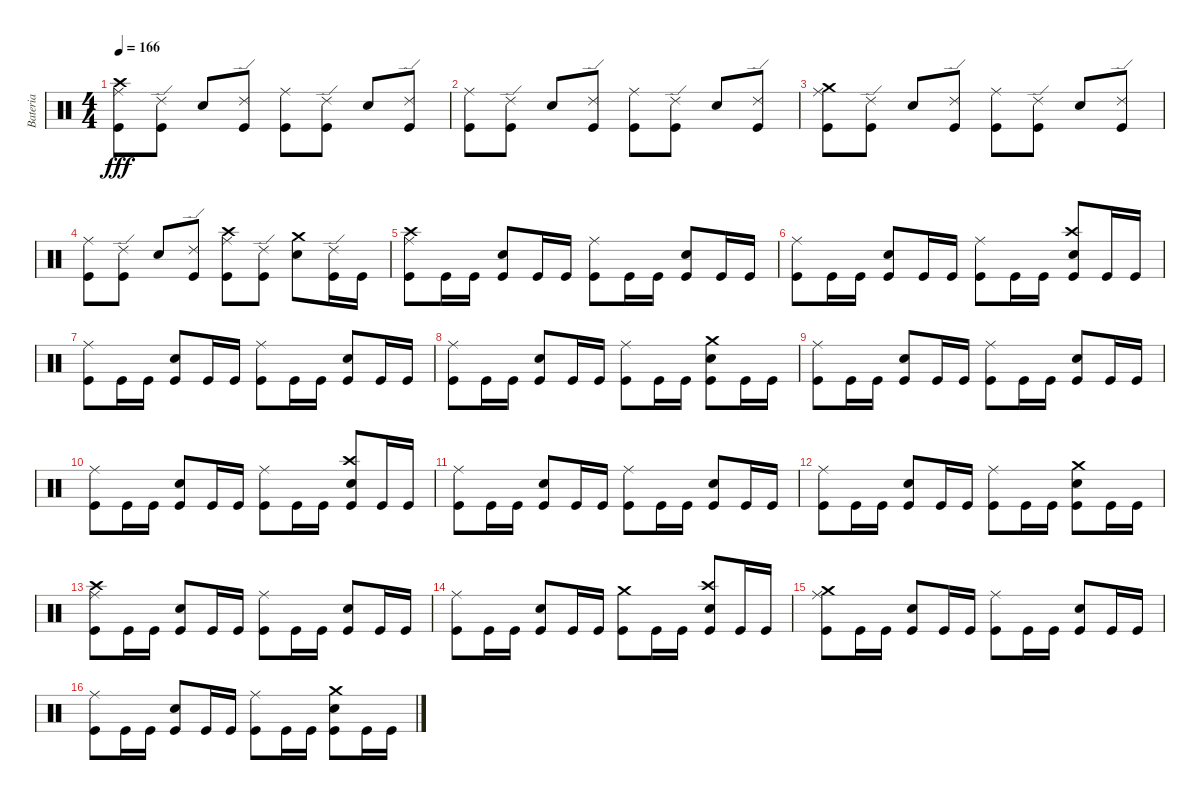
\track ("Bateria" "Bateria") {instrument percussion}
\staff {score}
\articulation defaults
\ts (4 4)
\tempo 166
\clef neutral
\ks c
("Kick (hit)" "Ride (middle)" "Crash high (hit)").8{dy fff} ("Kick (hit)" "Ride (edge) 2").8 "Snare (hit) 2".8 ("Kick (hit)" "Ride (edge) 2").8 ("Kick (hit)" "Ride (middle)").8 ("Kick (hit)" "Ride (edge) 2").8 "Snare (hit) 2".8 ("Kick (hit)" "Ride (edge) 2").8 |
("Kick (hit)" "Ride (middle)").8 ("Kick (hit)" "Ride (edge) 2").8 "Snare (hit) 2".8 ("Kick (hit)" "Ride (edge) 2").8 ("Kick (hit)" "Ride (middle)").8 ("Kick (hit)" "Ride (edge) 2").8 "Snare (hit) 2".8 ("Kick (hit)" "Ride (edge) 2").8 |
("Kick (hit)" "Ride (middle)" "Crash medium (hit)").8 ("Kick (hit)" "Ride (edge) 2").8 "Snare (hit) 2".8 ("Kick (hit)" "Ride (edge) 2").8 ("Kick (hit)" "Ride (middle)").8 ("Kick (hit)" "Ride (edge) 2").8 "Snare (hit) 2".8 ("Kick (hit)" "Ride (edge) 2").8 |
("Kick (hit)" "Ride (middle)").8 ("Kick (hit)" "Ride (edge) 2").8 "Snare (hit) 2".8 ("Kick (hit)" "Ride (edge) 2").8 ("Kick (hit)" "Ride (middle)" "Crash high (hit)").8 ("Kick (hit)" "Ride (edge) 2").8 ("Crash medium (hit)" "Snare (hit) 2").8 ("Ride (edge) 2" "Kick (hit)").16 "Kick (hit)".16 |
("Ride (middle)" "Kick (hit)" "Crash high (hit)").8 "Kick (hit)".16 "Kick (hit)".16 ("Snare (hit) 2" "Kick (hit)").8 "Kick (hit)".16 "Kick (hit)".16 ("Ride (middle)" "Kick (hit)").8 "Kick (hit)".16 "Kick (hit)".16 ("Snare (hit) 2" "Kick (hit)").8 "Kick (hit)".16 "Kick (hit)".16 |
("Ride (middle)" "Kick (hit)").8 "Kick (hit)".16 "Kick (hit)".16 ("Snare (hit) 2" "Kick (hit)").8 "Kick (hit)".16 "Kick (hit)".16 ("Ride (middle)" "Kick (hit)").8 "Kick (hit)".16 "Kick (hit)".16 ("Snare (hit) 2" "Kick (hit)" "Crash high (hit)").8 "Kick (hit)".16 "Kick (hit)".16 |
("Ride (middle)" "Kick (hit)").8 "Kick (hit)".16 "Kick (hit)".16 ("Snare (hit) 2" "Kick (hit)").8 "Kick (hit)".16 "Kick (hit)".16 ("Ride (middle)" "Kick (hit)").8 "Kick (hit)".16 "Kick (hit)".16 ("Snare (hit) 2" "Kick (hit)").8 "Kick (hit)".16 "Kick (hit)".16 |
("Ride (middle)" "Kick (hit)").8 "Kick (hit)".16 "Kick (hit)".16 ("Snare (hit) 2" "Kick (hit)").8 "Kick (hit)".16 "Kick (hit)".16 ("Ride (middle)" "Kick (hit)").8 "Kick (hit)".16 "Kick (hit)".16 ("Snare (hit) 2" "Kick (hit)" "Crash medium (hit)").8 "Kick (hit)".16 "Kick (hit)".16 |
("Ride (middle)" "Kick (hit)").8 "Kick (hit)".16 "Kick (hit)".16 ("Snare (hit) 2" "Kick (hit)").8 "Kick (hit)".16 "Kick (hit)".16 ("Ride (middle)" "Kick (hit)").8 "Kick (hit)".16 "Kick (hit)".16 ("Snare (hit) 2" "Kick (hit)").8 "Kick (hit)".16 "Kick (hit)".16 |
("Ride (middle)" "Kick (hit)").8 "Kick (hit)".16 "Kick (hit)".16 ("Snare (hit) 2" "Kick (hit)").8 "Kick (hit)".16 "Kick (hit)".16 ("Ride (middle)" "Kick (hit)").8 "Kick (hit)".16 "Kick (hit)".16 ("Snare (hit) 2" "Kick (hit)" "Crash high (hit)").8 "Kick (hit)".16 "Kick (hit)".16 |
("Ride (middle)" "Kick (hit)").8 "Kick (hit)".16 "Kick (hit)".16 ("Snare (hit) 2" "Kick (hit)").8 "Kick (hit)".16 "Kick (hit)".16 ("Ride (middle)" "Kick (hit)").8 "Kick (hit)".16 "Kick (hit)".16 ("Snare (hit) 2" "Kick (hit)").8 "Kick (hit)".16 "Kick (hit)".16 |
("Ride (middle)" "Kick (hit)").8 "Kick (hit)".16 "Kick (hit)".16 ("Snare (hit) 2" "Kick (hit)").8 "Kick (hit)".16 "Kick (hit)".16 ("Ride (middle)" "Kick (hit)").8 "Kick (hit)".16 "Kick (hit)".16 ("Snare (hit) 2" "Kick (hit)" "Crash medium (hit)").8 "Kick (hit)".16 "Kick (hit)".16 |
("Ride (middle)" "Kick (hit)" "Crash high (hit)").8 "Kick (hit)".16 "Kick (hit)".16 ("Snare (hit) 2" "Kick (hit)").8 "Kick (hit)".16 "Kick (hit)".16 ("Ride (middle)" "Kick (hit)").8 "Kick (hit)".16 "Kick (hit)".16 ("Snare (hit) 2" "Kick (hit)").8 "Kick (hit)".16 "Kick (hit)".16 |
("Ride (middle)" "Kick (hit)").8 "Kick (hit)".16 "Kick (hit)".16 ("Snare (hit) 2" "Kick (hit)").8 "Kick (hit)".16 "Kick (hit)".16 ("Kick (hit)" "Crash medium (hit)").8 "Kick (hit)".16 "Kick (hit)".16 ("Snare (hit) 2" "Kick (hit)" "Crash high (hit)").8 "Kick (hit)".16 "Kick (hit)".16 |
("Ride (middle)" "Kick (hit)" "Crash medium (hit)").8 "Kick (hit)".16 "Kick (hit)".16 ("Snare (hit) 2" "Kick (hit)").8 "Kick (hit)".16 "Kick (hit)".16 ("Ride (middle)" "Kick (hit)").8 "Kick (hit)".16 "Kick (hit)".16 ("Snare (hit) 2" "Kick (hit)").8 "Kick (hit)".16 "Kick (hit)".16 |
("Ride (middle)" "Kick (hit)").8 "Kick (hit)".16 "Kick (hit)".16 ("Snare (hit) 2" "Kick (hit)").8 "Kick (hit)".16 "Kick (hit)".16 ("Ride (middle)" "Kick (hit)").8 "Kick (hit)".16 "Kick (hit)".16 ("Snare (hit) 2" "Kick (hit)" "Crash medium (hit)").8 "Kick (hit)".16 "Kick (hit)".16
